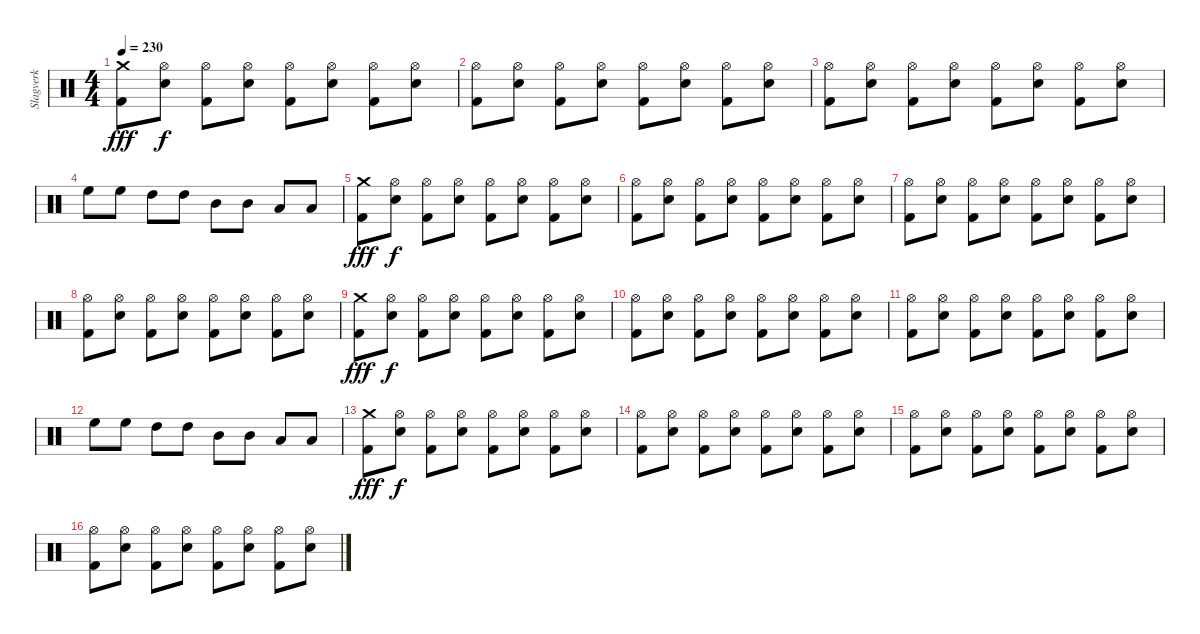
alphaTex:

\track ("Slagverk" "Slagverk") {instrument percussion}
\staff {score}
\articulation defaults
\ts (4 4)
\tempo 230
\clef neutral
\ks c
("Kick (hit) 2" "Crash medium (hit)").8{dy fff} ("Snare (hit) 2" "Hi-Hat (open)").8{dy f} ("Kick (hit) 2" "Hi-Hat (open)").8 ("Snare (hit) 2" "Hi-Hat (open)").8 ("Kick (hit) 2" "Hi-Hat (open)").8 ("Snare (hit) 2" "Hi-Hat (open)").8 ("Kick (hit) 2" "Hi-Hat (open)").8 ("Snare (hit) 2" "Hi-Hat (open)").8 |
("Kick (hit) 2" "Hi-Hat (open)").8 ("Snare (hit) 2" "Hi-Hat (open)").8 ("Kick (hit) 2" "Hi-Hat (open)").8 ("Snare (hit) 2" "Hi-Hat (open)").8 ("Kick (hit) 2" "Hi-Hat (open)").8 ("Snare (hit) 2" "Hi-Hat (open)").8 ("Kick (hit) 2" "Hi-Hat (open)").8 ("Snare (hit) 2" "Hi-Hat (open)").8 |
("Kick (hit) 2" "Hi-Hat (open)").8 ("Snare (hit) 2" "Hi-Hat (open)").8 ("Kick (hit) 2" "Hi-Hat (open)").8 ("Snare (hit) 2" "Hi-Hat (open)").8 ("Kick (hit) 2" "Hi-Hat (open)").8 ("Snare (hit) 2" "Hi-Hat (open)").8 ("Kick (hit) 2" "Hi-Hat (open)").8 ("Snare (hit) 2" "Hi-Hat (open)").8 |
"High Floor Tom (hit)".8 "High Floor Tom (hit)".8 "High Tom (hit)".8 "High Tom (hit)".8 "Mid Tom (hit)".8 "Mid Tom (hit)".8 "Low Tom (hit)".8 "Low Tom (hit)".8 |
("Kick (hit) 2" "Crash medium (hit)").8{dy fff} ("Snare (hit) 2" "Hi-Hat (open)").8{dy f} ("Kick (hit) 2" "Hi-Hat (open)").8 ("Snare (hit) 2" "Hi-Hat (open)").8 ("Kick (hit) 2" "Hi-Hat (open)").8 ("Snare (hit) 2" "Hi-Hat (open)").8 ("Kick (hit) 2" "Hi-Hat (open)").8 ("Snare (hit) 2" "Hi-Hat (open)").8 |
("Kick (hit) 2" "Hi-Hat (open)").8 ("Snare (hit) 2" "Hi-Hat (open)").8 ("Kick (hit) 2" "Hi-Hat (open)").8 ("Snare (hit) 2" "Hi-Hat (open)").8 ("Kick (hit) 2" "Hi-Hat (open)").8 ("Snare (hit) 2" "Hi-Hat (open)").8 ("Kick (hit) 2" "Hi-Hat (open)").8 ("Snare (hit) 2" "Hi-Hat (open)").8 |
("Kick (hit) 2" "Hi-Hat (open)").8 ("Snare (hit) 2" "Hi-Hat (open)").8 ("Kick (hit) 2" "Hi-Hat (open)").8 ("Snare (hit) 2" "Hi-Hat (open)").8 ("Kick (hit) 2" "Hi-Hat (open)").8 ("Snare (hit) 2" "Hi-Hat (open)").8 ("Kick (hit) 2" "Hi-Hat (open)").8 ("Snare (hit) 2" "Hi-Hat (open)").8 |
("Kick (hit) 2" "Hi-Hat (open)").8 ("Snare (hit) 2" "Hi-Hat (open)").8 ("Kick (hit) 2" "Hi-Hat (open)").8 ("Snare (hit) 2" "Hi-Hat (open)").8 ("Kick (hit) 2" "Hi-Hat (open)").8 ("Snare (hit) 2" "Hi-Hat (open)").8 ("Kick (hit) 2" "Hi-Hat (open)").8 ("Snare (hit) 2" "Hi-Hat (open)").8 |
("Kick (hit) 2" "Crash medium (hit)").8{dy fff} ("Snare (hit) 2" "Hi-Hat (open)").8{dy f} ("Kick (hit) 2" "Hi-Hat (open)").8 ("Snare (hit) 2" "Hi-Hat (open)").8 ("Kick (hit) 2" "Hi-Hat (open)").8 ("Snare (hit) 2" "Hi-Hat (open)").8 ("Kick (hit) 2" "Hi-Hat (open)").8 ("Snare (hit) 2" "Hi-Hat (open)").8 |
("Kick (hit) 2" "Hi-Hat (open)").8 ("Snare (hit) 2" "Hi-Hat (open)").8 ("Kick (hit) 2" "Hi-Hat (open)").8 ("Snare (hit) 2" "Hi-Hat (open)").8 ("Kick (hit) 2" "Hi-Hat (open)").8 ("Snare (hit) 2" "Hi-Hat (open)").8 ("Kick (hit) 2" "Hi-Hat (open)").8 ("Snare (hit) 2" "Hi-Hat (open)").8 |
("Kick (hit) 2" "Hi-Hat (open)").8 ("Snare (hit) 2" "Hi-Hat (open)").8 ("Kick (hit) 2" "Hi-Hat (open)").8 ("Snare (hit) 2" "Hi-Hat (open)").8 ("Kick (hit) 2" "Hi-Hat (open)").8 ("Snare (hit) 2" "Hi-Hat (open)").8 ("Kick (hit) 2" "Hi-Hat (open)").8 ("Snare (hit) 2" "Hi-Hat (open)").8 |
"High Floor Tom (hit)".8 "High Floor Tom (hit)".8 "High Tom (hit)".8 "High Tom (hit)".8 "Mid Tom (hit)".8 "Mid Tom (hit)".8 "Low Tom (hit)".8 "Low Tom (hit)".8 |
("Kick (hit) 2" "Crash medium (hit)").8{dy fff} ("Snare (hit) 2" "Hi-Hat (open)").8{dy f} ("Kick (hit) 2" "Hi-Hat (open)").8 ("Snare (hit) 2" "Hi-Hat (open)").8 ("Kick (hit) 2" "Hi-Hat (open)").8 ("Snare (hit) 2" "Hi-Hat (open)").8 ("Kick (hit) 2" "Hi-Hat (open)").8 ("Snare (hit) 2" "Hi-Hat (open)").8 |
("Kick (hit) 2" "Hi-Hat (open)").8 ("Snare (hit) 2" "Hi-Hat (open)").8 ("Kick (hit) 2" "Hi-Hat (open)").8 ("Snare (hit) 2" "Hi-Hat (open)").8 ("Kick (hit) 2" "Hi-Hat (open)").8 ("Snare (hit) 2" "Hi-Hat (open)").8 ("Kick (hit) 2" "Hi-Hat (open)").8 ("Snare (hit) 2" "Hi-Hat (open)").8 |
("Kick (hit) 2" "Hi-Hat (open)").8 ("Snare (hit) 2" "Hi-Hat (open)").8 ("Kick (hit) 2" "Hi-Hat (open)").8 ("Snare (hit) 2" "Hi-Hat (open)").8 ("Kick (hit) 2" "Hi-Hat (open)").8 ("Snare (hit) 2" "Hi-Hat (open)").8 ("Kick (hit) 2" "Hi-Hat (open)").8 ("Snare (hit) 2" "Hi-Hat (open)").8 |
("Kick (hit) 2" "Hi-Hat (open)").8 ("Snare (hit) 2" "Hi-Hat (open)").8 ("Kick (hit) 2" "Hi-Hat (open)").8 ("Snare (hit) 2" "Hi-Hat (open)").8 ("Kick (hit) 2" "Hi-Hat (open)").8 ("Snare (hit) 2" "Hi-Hat (open)").8 ("Kick (hit) 2" "Hi-Hat (open)").8 ("Snare (hit) 2" "Hi-Hat (open)").8
